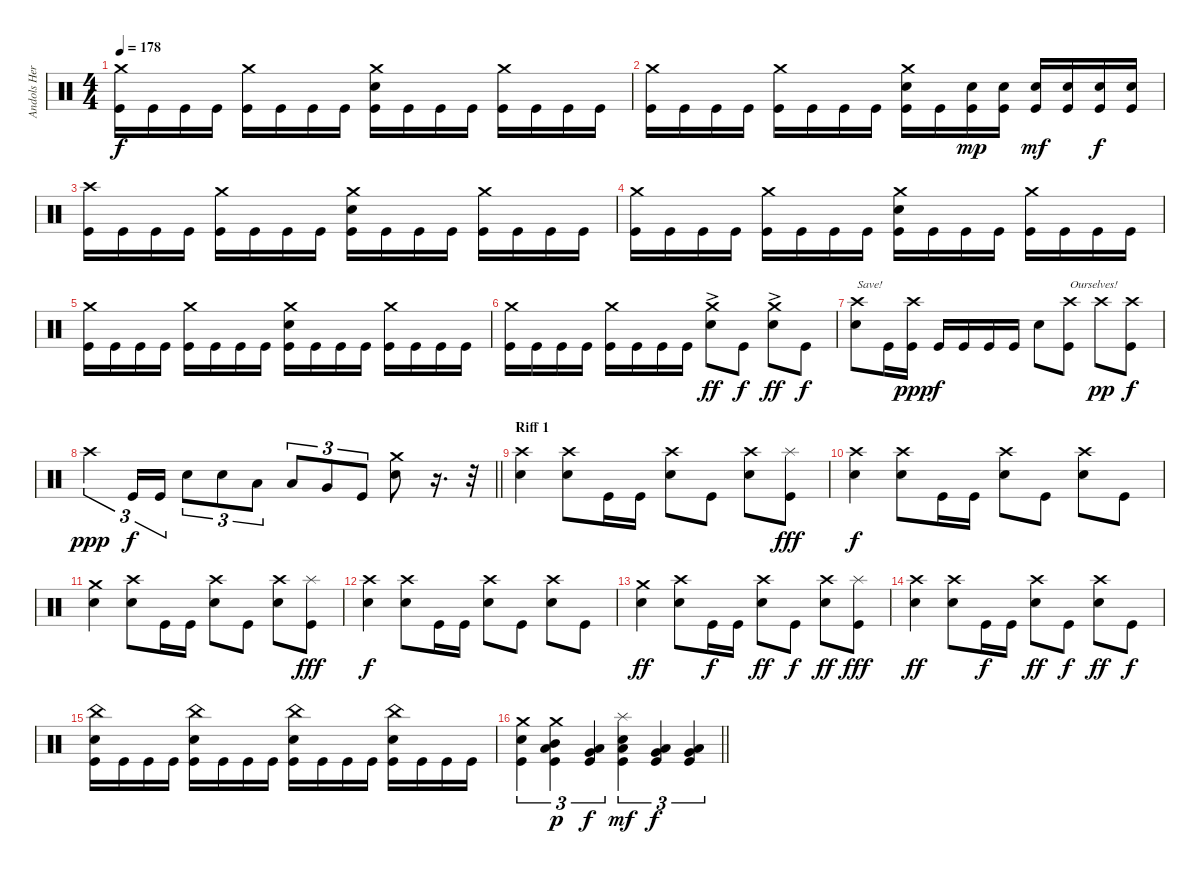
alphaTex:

\track ("Andols Herrick" "Andols Her") {instrument percussion}
\staff {score}
\articulation defaults
\ts (4 4)
\tempo 178
\clef neutral
\ks c
("Crash medium (hit)" "Kick (hit)").16{dy f} "Kick (hit)".16 "Kick (hit)".16 "Kick (hit)".16 ("Crash medium (hit)" "Kick (hit)").16 "Kick (hit)".16 "Kick (hit)".16 "Kick (hit)".16 ("Crash medium (hit)" "Electric Snare (hit)" "Kick (hit)").16 "Kick (hit)".16 "Kick (hit)".16 "Kick (hit)".16 ("Crash medium (hit)" "Kick (hit)").16 "Kick (hit)".16 "Kick (hit)".16 "Kick (hit)".16 |
("Crash medium (hit)" "Kick (hit)").16 "Kick (hit)".16 "Kick (hit)".16 "Kick (hit)".16 ("Crash medium (hit)" "Kick (hit)").16 "Kick (hit)".16 "Kick (hit)".16 "Kick (hit)".16 ("Crash medium (hit)" "Electric Snare (hit)" "Kick (hit)").16 "Kick (hit)".16 ("Electric Snare (hit)" "Kick (hit)").16{dy mp} ("Electric Snare (hit)" "Kick (hit)").16 ("Electric Snare (hit)" "Kick (hit)").16{dy mf} ("Electric Snare (hit)" "Kick (hit)").16 ("Electric Snare (hit)" "Kick (hit)").16{dy f} ("Electric Snare (hit)" "Kick (hit)").16 |
("Crash high (hit)" "Kick (hit)").16 "Kick (hit)".16 "Kick (hit)".16 "Kick (hit)".16 ("Crash medium (hit)" "Kick (hit)").16 "Kick (hit)".16 "Kick (hit)".16 "Kick (hit)".16 ("Crash medium (hit)" "Electric Snare (hit)" "Kick (hit)").16 "Kick (hit)".16 "Kick (hit)".16 "Kick (hit)".16 ("Crash medium (hit)" "Kick (hit)").16 "Kick (hit)".16 "Kick (hit)".16 "Kick (hit)".16 |
("Crash medium (hit)" "Kick (hit)").16 "Kick (hit)".16 "Kick (hit)".16 "Kick (hit)".16 ("Crash medium (hit)" "Kick (hit)").16 "Kick (hit)".16 "Kick (hit)".16 "Kick (hit)".16 ("Crash medium (hit)" "Electric Snare (hit)" "Kick (hit)").16 "Kick (hit)".16 "Kick (hit)".16 "Kick (hit)".16 ("Crash medium (hit)" "Kick (hit)").16 "Kick (hit)".16 "Kick (hit)".16 "Kick (hit)".16 |
("Crash medium (hit)" "Kick (hit)").16 "Kick (hit)".16 "Kick (hit)".16 "Kick (hit)".16 ("Crash medium (hit)" "Kick (hit)").16 "Kick (hit)".16 "Kick (hit)".16 "Kick (hit)".16 ("Crash medium (hit)" "Electric Snare (hit)" "Kick (hit)").16 "Kick (hit)".16 "Kick (hit)".16 "Kick (hit)".16 ("Crash medium (hit)" "Kick (hit)").16 "Kick (hit)".16 "Kick (hit)".16 "Kick (hit)".16 |
("Crash medium (hit)" "Kick (hit)").16 "Kick (hit)".16 "Kick (hit)".16 "Kick (hit)".16 ("Crash medium (hit)" "Kick (hit)").16 "Kick (hit)".16 "Kick (hit)".16 "Kick (hit)".16 ("Crash medium (hit)" "Electric Snare (hit)"{ac}).8{dy ff} "Kick (hit)".8{dy f} ("Crash medium (hit)" "Electric Snare (hit)"{ac}).8{dy ff} "Kick (hit)".8{dy f} |
("Crash high (hit)" "Electric Snare (hit)").8{txt "Save!"} "Kick (hit)".16 ("Crash high (hit)" "Kick (hit)").16{dy ppp} "Kick (hit)".16{dy f} "Kick (hit)".16 "Kick (hit)".16 "Kick (hit)".16 "Electric Snare (hit)".8 ("Crash high (hit)" "Kick (hit)").8{txt "Ourselves!"} "Crash high (hit)".8{dy pp} ("Crash high (hit)" "Kick (hit)").8{dy f} |
\barLineRight lightlight "Crash high (hit)".4{tu (3 2) dy ppp} "Kick (hit)".16{tu (3 2) dy f} "Kick (hit)".16{tu (3 2)} "Electric Snare (hit)".8{tu (3 2)} "Electric Snare (hit)".8{tu (3 2)} "Low Tom (hit)".8{tu (3 2)} "Low Tom (hit)".8{tu (3 2)} "Very Low Tom (hit)".8{tu (3 2)} "Kick (hit)".8{tu (3 2)}
("Crash medium (hit)" "Electric Snare (hit)").8 r.16{d} r.32 |
\section ("" "Riff 1")
("Crash high (hit)" "Electric Snare (hit)").4 ("Crash high (hit)" "Electric Snare (hit)").8 "Kick (hit)".16 "Kick (hit)".16 ("Crash high (hit)" "Electric Snare (hit)").8 "Kick (hit)".8 ("Crash high (hit)" "Electric Snare (hit)").8 ("Splash (hit)" "Kick (hit)").8{dy fff} |
("Crash high (hit)" "Electric Snare (hit)").4{dy f} ("Crash high (hit)" "Electric Snare (hit)").8 "Kick (hit)".16 "Kick (hit)".16 ("Crash high (hit)" "Electric Snare (hit)").8 "Kick (hit)".8 ("Crash high (hit)" "Electric Snare (hit)").8 "Kick (hit)".8 |
("Crash medium (hit)" "Electric Snare (hit)").4 ("Crash high (hit)" "Electric Snare (hit)").8 "Kick (hit)".16 "Kick (hit)".16 ("Crash high (hit)" "Electric Snare (hit)").8 "Kick (hit)".8 ("Crash high (hit)" "Electric Snare (hit)").8 ("Splash (hit)" "Kick (hit)").8{dy fff} |
("Crash high (hit)" "Electric Snare (hit)").4{dy f} ("Crash high (hit)" "Electric Snare (hit)").8 "Kick (hit)".16 "Kick (hit)".16 ("Crash high (hit)" "Electric Snare (hit)").8 "Kick (hit)".8 ("Crash high (hit)" "Electric Snare (hit)").8 "Kick (hit)".8 |
("Crash medium (hit)" "Electric Snare (hit)").4{dy ff} ("Crash high (hit)" "Electric Snare (hit)").8 "Kick (hit)".16{dy f} "Kick (hit)".16 ("Crash high (hit)" "Electric Snare (hit)").8{dy ff} "Kick (hit)".8{dy f} ("Crash high (hit)" "Electric Snare (hit)").8{dy ff} ("Splash (hit)" "Kick (hit)").8{dy fff} |
("Crash high (hit)" "Electric Snare (hit)").4{dy ff} ("Crash high (hit)" "Electric Snare (hit)").8 "Kick (hit)".16{dy f} "Kick (hit)".16 ("Crash high (hit)" "Electric Snare (hit)").8{dy ff} "Kick (hit)".8{dy f} ("Crash high (hit)" "Electric Snare (hit)").8{dy ff} "Kick (hit)".8{dy f} |
("China (hit)" "Electric Snare (hit)" "Kick (hit)").16 "Kick (hit)".16 "Kick (hit)".16 "Kick (hit)".16 ("China (hit)" "Electric Snare (hit)" "Kick (hit)").16 "Kick (hit)".16 "Kick (hit)".16 "Kick (hit)".16 ("China (hit)" "Electric Snare (hit)" "Kick (hit)").16 "Kick (hit)".16 "Kick (hit)".16 "Kick (hit)".16 ("China (hit)" "Electric Snare (hit)" "Kick (hit)").16 "Kick (hit)".16 "Kick (hit)".16 "Kick (hit)".16 |
\barLineRight lightlight
("Crash medium (hit)" "Electric Snare (hit)" "Kick (hit)").4{tu (3 2)} ("Crash medium (hit)" "Mid Tom (hit)" "Low Tom (hit)" "Kick (hit)").4{tu (3 2) dy p} ("Low Tom (hit)" "Very Low Tom (hit)" "Kick (hit)").4{tu (3 2) dy f} ("Splash (hit)" "Low Tom (hit)" "Electric Snare (hit)" "Kick (hit)").4{tu (3 2) dy mf} ("Low Tom (hit)" "Very Low Tom (hit)" "Kick (hit)").4{tu (3 2) dy f} ("Very Low Tom (hit)" "Low Floor Tom (hit)" "Kick (hit)").4{tu (3 2)}
